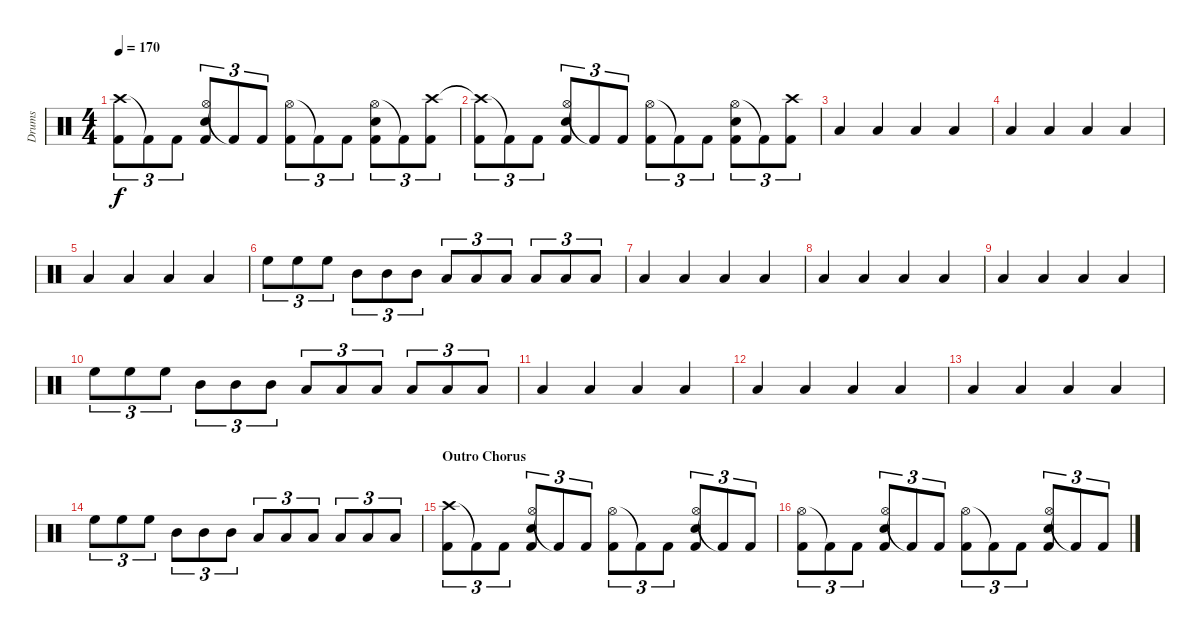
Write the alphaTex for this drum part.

\track ("Drums" "Drums") {instrument percussion}
\staff {score}
\articulation defaults
\ts (4 4)
\tempo 170
\clef neutral
\ks c
("Crash high (hit)" "Kick (hit) 2").8{tu (3 2) dy f} "Kick (hit) 2"{t}.8{tu (3 2)} "Kick (hit) 2".8{tu (3 2)} ("Hi-Hat (open)" "Snare (hit) 2" "Kick (hit) 2").8{tu (3 2)} "Kick (hit) 2"{t}.8{tu (3 2)} "Kick (hit) 2".8{tu (3 2)} ("Hi-Hat (open)" "Kick (hit) 2").8{tu (3 2)} "Kick (hit) 2"{t}.8{tu (3 2)} "Kick (hit) 2".8{tu (3 2)} ("Hi-Hat (open)" "Snare (hit) 2" "Kick (hit) 2").8{tu (3 2)} "Kick (hit) 2"{t}.8{tu (3 2)} ("Crash high (hit)" "Kick (hit) 2").8{tu (3 2)} |
("Crash high (hit)"{t} "Kick (hit) 2").8{tu (3 2)} "Kick (hit) 2"{t}.8{tu (3 2)} "Kick (hit) 2".8{tu (3 2)} ("Hi-Hat (open)" "Snare (hit) 2" "Kick (hit) 2").8{tu (3 2)} "Kick (hit) 2"{t}.8{tu (3 2)} "Kick (hit) 2".8{tu (3 2)} ("Hi-Hat (open)" "Kick (hit) 2").8{tu (3 2)} "Kick (hit) 2"{t}.8{tu (3 2)} "Kick (hit) 2".8{tu (3 2)} ("Hi-Hat (open)" "Snare (hit) 2" "Kick (hit) 2").8{tu (3 2)} "Kick (hit) 2"{t}.8{tu (3 2)} ("Crash high (hit)" "Kick (hit) 2").8{tu (3 2)} |
"Low Floor Tom (hit)".4 "Low Floor Tom (hit)".4 "Low Floor Tom (hit)".4 "Low Floor Tom (hit)".4 |
"Low Floor Tom (hit)".4 "Low Floor Tom (hit)".4 "Low Floor Tom (hit)".4 "Low Floor Tom (hit)".4 |
"Low Floor Tom (hit)".4 "Low Floor Tom (hit)".4 "Low Floor Tom (hit)".4 "Low Floor Tom (hit)".4 |
"High Floor Tom (hit)".8{tu (3 2)} "High Floor Tom (hit)".8{tu (3 2)} "High Floor Tom (hit)".8{tu (3 2)} "Mid Tom (hit)".8{tu (3 2)} "Mid Tom (hit)".8{tu (3 2)} "Mid Tom (hit)".8{tu (3 2)} "Low Tom (hit)".8{tu (3 2)} "Low Tom (hit)".8{tu (3 2)} "Low Tom (hit)".8{tu (3 2)} "Low Floor Tom (hit)".8{tu (3 2)} "Low Floor Tom (hit)".8{tu (3 2)} "Low Floor Tom (hit)".8{tu (3 2)} |
"Low Floor Tom (hit)".4 "Low Floor Tom (hit)".4 "Low Floor Tom (hit)".4 "Low Floor Tom (hit)".4 |
"Low Floor Tom (hit)".4 "Low Floor Tom (hit)".4 "Low Floor Tom (hit)".4 "Low Floor Tom (hit)".4 |
"Low Floor Tom (hit)".4 "Low Floor Tom (hit)".4 "Low Floor Tom (hit)".4 "Low Floor Tom (hit)".4 |
"High Floor Tom (hit)".8{tu (3 2)} "High Floor Tom (hit)".8{tu (3 2)} "High Floor Tom (hit)".8{tu (3 2)} "Mid Tom (hit)".8{tu (3 2)} "Mid Tom (hit)".8{tu (3 2)} "Mid Tom (hit)".8{tu (3 2)} "Low Tom (hit)".8{tu (3 2)} "Low Tom (hit)".8{tu (3 2)} "Low Tom (hit)".8{tu (3 2)} "Low Floor Tom (hit)".8{tu (3 2)} "Low Floor Tom (hit)".8{tu (3 2)} "Low Floor Tom (hit)".8{tu (3 2)} |
"Low Floor Tom (hit)".4 "Low Floor Tom (hit)".4 "Low Floor Tom (hit)".4 "Low Floor Tom (hit)".4 |
"Low Floor Tom (hit)".4 "Low Floor Tom (hit)".4 "Low Floor Tom (hit)".4 "Low Floor Tom (hit)".4 |
"Low Floor Tom (hit)".4 "Low Floor Tom (hit)".4 "Low Floor Tom (hit)".4 "Low Floor Tom (hit)".4 |
"High Floor Tom (hit)".8{tu (3 2)} "High Floor Tom (hit)".8{tu (3 2)} "High Floor Tom (hit)".8{tu (3 2)} "Mid Tom (hit)".8{tu (3 2)} "Mid Tom (hit)".8{tu (3 2)} "Mid Tom (hit)".8{tu (3 2)} "Low Tom (hit)".8{tu (3 2)} "Low Tom (hit)".8{tu (3 2)} "Low Tom (hit)".8{tu (3 2)} "Low Floor Tom (hit)".8{tu (3 2)} "Low Floor Tom (hit)".8{tu (3 2)} "Low Floor Tom (hit)".8{tu (3 2)} |
\section ("" "Outro Chorus")
("Crash high (hit)" "Kick (hit) 2").8{tu (3 2)} "Kick (hit) 2"{t}.8{tu (3 2)} "Kick (hit) 2".8{tu (3 2)} ("Hi-Hat (open)" "Snare (hit) 2" "Kick (hit) 2").8{tu (3 2)} "Kick (hit) 2"{t}.8{tu (3 2)} "Kick (hit) 2".8{tu (3 2)} ("Hi-Hat (open)" "Kick (hit) 2").8{tu (3 2)} "Kick (hit) 2"{t}.8{tu (3 2)} "Kick (hit) 2".8{tu (3 2)} ("Hi-Hat (open)" "Snare (hit) 2" "Kick (hit) 2").8{tu (3 2)} "Kick (hit) 2"{t}.8{tu (3 2)} "Kick (hit) 2".8{tu (3 2)} |
("Hi-Hat (open)" "Kick (hit) 2").8{tu (3 2)} "Kick (hit) 2"{t}.8{tu (3 2)} "Kick (hit) 2".8{tu (3 2)} ("Hi-Hat (open)" "Snare (hit) 2" "Kick (hit) 2").8{tu (3 2)} "Kick (hit) 2"{t}.8{tu (3 2)} "Kick (hit) 2".8{tu (3 2)} ("Hi-Hat (open)" "Kick (hit) 2").8{tu (3 2)} "Kick (hit) 2"{t}.8{tu (3 2)} "Kick (hit) 2".8{tu (3 2)} ("Hi-Hat (open)" "Snare (hit) 2" "Kick (hit) 2").8{tu (3 2)} "Kick (hit) 2"{t}.8{tu (3 2)} "Kick (hit) 2".8{tu (3 2)}
